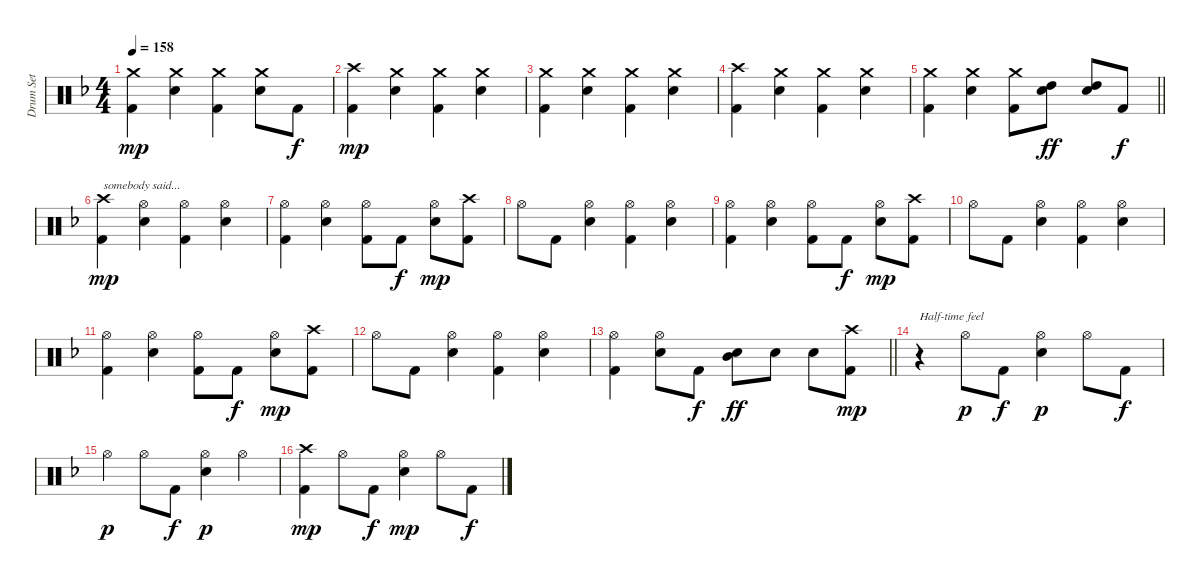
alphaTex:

\track ("Drum Set" "Drum Set") {instrument percussion}
\staff {score}
\articulation defaults
\ts (4 4)
\tempo 158
\clef neutral
\ks f
("Kick (hit) 2" "Crash medium (hit)").4{dy mp} ("Crash medium (hit)" "Electric Snare (hit)").4 ("Kick (hit) 2" "Crash medium (hit)").4 ("Electric Snare (hit)" "Crash medium (hit)").8 "Kick (hit) 2".8{dy f} |
("Kick (hit) 2" "Crash high (hit)").4{dy mp} ("Crash medium (hit)" "Electric Snare (hit)").4 ("Kick (hit) 2" "Crash medium (hit)").4 ("Electric Snare (hit)" "Crash medium (hit)").4 |
("Kick (hit) 2" "Crash medium (hit)").4 ("Crash medium (hit)" "Electric Snare (hit)").4 ("Kick (hit) 2" "Crash medium (hit)").4 ("Crash medium (hit)" "Electric Snare (hit)").4 |
("Kick (hit) 2" "Crash high (hit)").4 ("Electric Snare (hit)" "Crash medium (hit)").4 ("Kick (hit) 2" "Crash medium (hit)").4 ("Electric Snare (hit)" "Crash medium (hit)").4 |
\barLineRight lightlight
("Kick (hit) 2" "Crash medium (hit)").4 ("Electric Snare (hit)" "Crash medium (hit)").4 ("Kick (hit) 2" "Crash medium (hit)").8 ("Electric Snare (hit)" "High Tom (hit)").8{dy ff} ("Electric Snare (hit)" "High Tom (hit)").8 "Kick (hit) 2".8{dy f} |
("Crash high (hit)" "Kick (hit) 2").4{txt "somebody said..." dy mp} ("Electric Snare (hit)" "Hi-Hat (open)").4 ("Kick (hit) 2" "Hi-Hat (open)").4 ("Electric Snare (hit)" "Hi-Hat (open)").4 |
("Kick (hit) 2" "Hi-Hat (open)").4 ("Electric Snare (hit)" "Hi-Hat (open)").4 ("Kick (hit) 2" "Hi-Hat (open)").8 "Kick (hit) 2".8{dy f} ("Electric Snare (hit)" "Hi-Hat (open)").8{dy mp} ("Kick (hit) 2" "Crash high (hit)").8 |
"Hi-Hat (open)".8 "Kick (hit) 2".8 ("Electric Snare (hit)" "Hi-Hat (open)").4 ("Kick (hit) 2" "Hi-Hat (open)").4 ("Electric Snare (hit)" "Hi-Hat (open)").4 |
("Kick (hit) 2" "Hi-Hat (open)").4 ("Electric Snare (hit)" "Hi-Hat (open)").4 ("Kick (hit) 2" "Hi-Hat (open)").8 "Kick (hit) 2".8{dy f} ("Electric Snare (hit)" "Hi-Hat (open)").8{dy mp} ("Kick (hit) 2" "Crash high (hit)").8 |
"Hi-Hat (open)".8 "Kick (hit) 2".8 ("Electric Snare (hit)" "Hi-Hat (open)").4 ("Kick (hit) 2" "Hi-Hat (open)").4 ("Electric Snare (hit)" "Hi-Hat (open)").4 |
("Kick (hit) 2" "Hi-Hat (open)").4 ("Electric Snare (hit)" "Hi-Hat (open)").4 ("Kick (hit) 2" "Hi-Hat (open)").8 "Kick (hit) 2".8{dy f} ("Electric Snare (hit)" "Hi-Hat (open)").8{dy mp} ("Kick (hit) 2" "Crash high (hit)").8 |
"Hi-Hat (open)".8 "Kick (hit) 2".8 ("Electric Snare (hit)" "Hi-Hat (open)").4 ("Kick (hit) 2" "Hi-Hat (open)").4 ("Electric Snare (hit)" "Hi-Hat (open)").4 |
\barLineRight lightlight
("Kick (hit) 2" "Hi-Hat (open)").4 ("Electric Snare (hit)" "Hi-Hat (open)").8 "Kick (hit) 2".8{dy f} ("Electric Snare (hit)" "Mid Tom (hit)").8{dy ff} "Electric Snare (hit)".8 "Electric Snare (hit)".8 ("Kick (hit) 2" "Crash high (hit)").8{dy mp} |
r.4{txt "Half-time feel"} "Hi-Hat (open)".8{dy p} "Kick (hit) 2".8{dy f} ("Hi-Hat (open)" "Electric Snare (hit)").4{dy p} "Hi-Hat (open)".8 "Kick (hit) 2".8{dy f} |
"Hi-Hat (open)".4{dy p} "Hi-Hat (open)".8 "Kick (hit) 2".8{dy f} ("Hi-Hat (open)" "Electric Snare (hit)").4{dy p} "Hi-Hat (open)".4 |
("Crash high (hit)" "Kick (hit) 2").4{dy mp} "Hi-Hat (open)".8 "Kick (hit) 2".8{dy f} ("Hi-Hat (open)" "Electric Snare (hit)").4{dy mp} "Hi-Hat (open)".8 "Kick (hit) 2".8{dy f}
